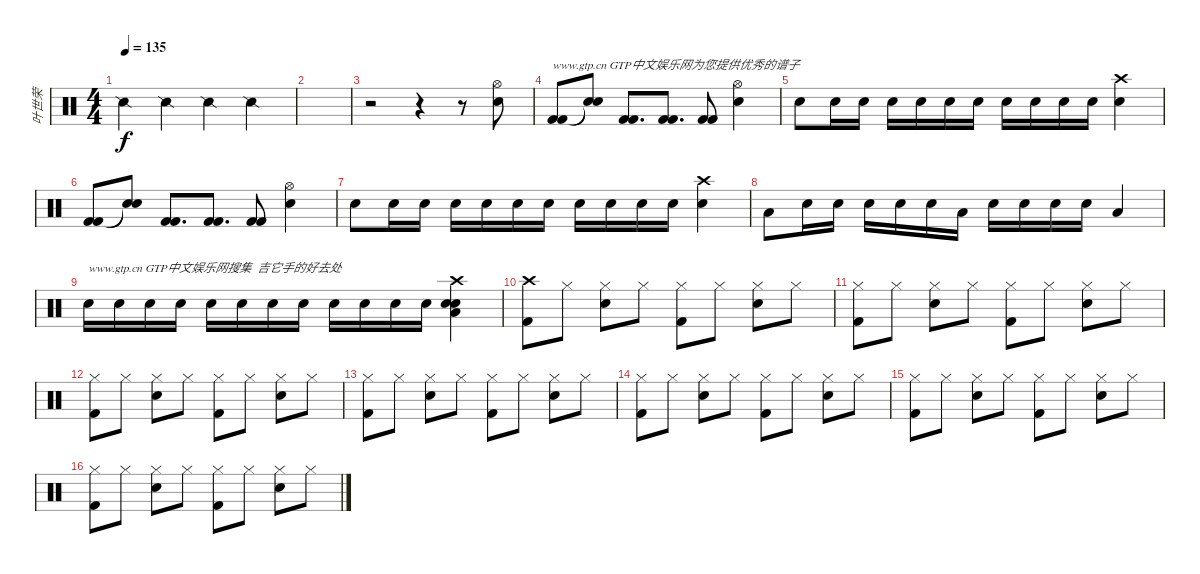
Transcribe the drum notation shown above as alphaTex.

\track ("叶世荣" "叶世荣") {instrument percussion}
\staff {score}
\articulation defaults
\ts (4 4)
\tempo 135
\clef neutral
\ks c "Snare (side stick) 2".4{dy f} "Snare (side stick) 2".4 "Snare (side stick) 2".4 "Snare (side stick) 2".4
|
|
r.2 r.4 r.8 ("Hi-Hat (open)" "Snare (hit) 2").8 |
("Kick (hit) 2" "Kick (hit) 2").8{txt "www.gtp.cn GTP中文娱乐网为您提供优秀的谱子"} ("Snare (hit)"{t} "Snare (hit)"{t}).8 ("Kick (hit) 2" "Kick (hit) 2").8{d} ("Kick (hit) 2" "Kick (hit) 2").8{d} ("Kick (hit) 2" "Kick (hit) 2").8 ("Hi-Hat (open)" "Snare (hit) 2").4 |
"Snare (hit) 2".8 "Snare (hit) 2".16 "Snare (hit) 2".16 "Snare (hit) 2".16 "Snare (hit) 2".16 "Snare (hit) 2".16 "Snare (hit) 2".16 "Snare (hit) 2".16 "Snare (hit) 2".16 "Snare (hit) 2".16 "Snare (hit) 2".16 ("Crash high (hit)" "Snare (hit) 2").4 |
("Kick (hit) 2" "Kick (hit) 2").8 ("Snare (hit)"{t} "Snare (hit)"{t}).8 ("Kick (hit) 2" "Kick (hit) 2").8{d} ("Kick (hit) 2" "Kick (hit) 2").8{d} ("Kick (hit) 2" "Kick (hit) 2").8 ("Hi-Hat (open)" "Snare (hit) 2").4 |
"Snare (hit) 2".8 "Snare (hit) 2".16 "Snare (hit) 2".16 "Snare (hit) 2".16 "Snare (hit) 2".16 "Snare (hit) 2".16 "Snare (hit) 2".16 "Snare (hit) 2".16 "Snare (hit) 2".16 "Snare (hit) 2".16 "Snare (hit) 2".16 ("Crash high (hit)" "Snare (hit) 2").4 |
"Low Tom (hit)".8 "Snare (hit) 2".16 "Snare (hit) 2".16 "Snare (hit) 2".16 "Snare (hit) 2".16 "Snare (hit) 2".16 "Low Tom (hit)".16 "Snare (hit) 2".16 "Snare (hit) 2".16 "Snare (hit) 2".16 "Snare (hit) 2".16 "Low Tom (hit)".4 |
"Snare (hit) 2".16{txt "www.gtp.cn GTP中文娱乐网搜集  吉它手的好去处"} "Snare (hit) 2".16 "Snare (hit) 2".16 "Snare (hit) 2".16 "Snare (hit) 2".16 "Snare (hit) 2".16 "Snare (hit) 2".16 "Snare (hit) 2".16 "Snare (hit) 2".16 "Snare (hit) 2".16 "Snare (hit) 2".16 "Snare (hit) 2".16 ("Crash high (hit)" "Low Tom (hit)" "Snare (hit) 2" "Electric Snare (hit)").4 |
("Crash high (hit)" "Kick (hit) 2").8 "Hi-Hat (closed)".8 ("Hi-Hat (closed)" "Electric Snare (hit)").8 "Hi-Hat (closed)".8 ("Hi-Hat (closed)" "Kick (hit) 2").8 "Hi-Hat (closed)".8 ("Hi-Hat (closed)" "Electric Snare (hit)").8 "Hi-Hat (closed)".8 |
("Hi-Hat (closed)" "Kick (hit) 2").8 "Hi-Hat (closed)".8 ("Hi-Hat (closed)" "Electric Snare (hit)").8 "Hi-Hat (closed)".8 ("Hi-Hat (closed)" "Kick (hit) 2").8 "Hi-Hat (closed)".8 ("Hi-Hat (closed)" "Electric Snare (hit)").8 "Hi-Hat (closed)".8 |
("Hi-Hat (closed)" "Kick (hit) 2").8 "Hi-Hat (closed)".8 ("Hi-Hat (closed)" "Electric Snare (hit)").8 "Hi-Hat (closed)".8 ("Hi-Hat (closed)" "Kick (hit) 2").8 "Hi-Hat (closed)".8 ("Hi-Hat (closed)" "Electric Snare (hit)").8 "Hi-Hat (closed)".8 |
("Hi-Hat (closed)" "Kick (hit) 2").8 "Hi-Hat (closed)".8 ("Hi-Hat (closed)" "Electric Snare (hit)").8 "Hi-Hat (closed)".8 ("Hi-Hat (closed)" "Kick (hit) 2").8 "Hi-Hat (closed)".8 ("Hi-Hat (closed)" "Electric Snare (hit)").8 "Hi-Hat (closed)".8 |
("Hi-Hat (closed)" "Kick (hit) 2").8 "Hi-Hat (closed)".8 ("Hi-Hat (closed)" "Electric Snare (hit)").8 "Hi-Hat (closed)".8 ("Hi-Hat (closed)" "Kick (hit) 2").8 "Hi-Hat (closed)".8 ("Hi-Hat (closed)" "Electric Snare (hit)").8 "Hi-Hat (closed)".8 |
("Hi-Hat (closed)" "Kick (hit) 2").8 "Hi-Hat (closed)".8 ("Hi-Hat (closed)" "Electric Snare (hit)").8 "Hi-Hat (closed)".8 ("Hi-Hat (closed)" "Kick (hit) 2").8 "Hi-Hat (closed)".8 ("Hi-Hat (closed)" "Electric Snare (hit)").8 "Hi-Hat (closed)".8 |
("Hi-Hat (closed)" "Kick (hit) 2").8 "Hi-Hat (closed)".8 ("Hi-Hat (closed)" "Electric Snare (hit)").8 "Hi-Hat (closed)".8 ("Hi-Hat (closed)" "Kick (hit) 2").8 "Hi-Hat (closed)".8 ("Hi-Hat (closed)" "Electric Snare (hit)").8 "Hi-Hat (closed)".8
